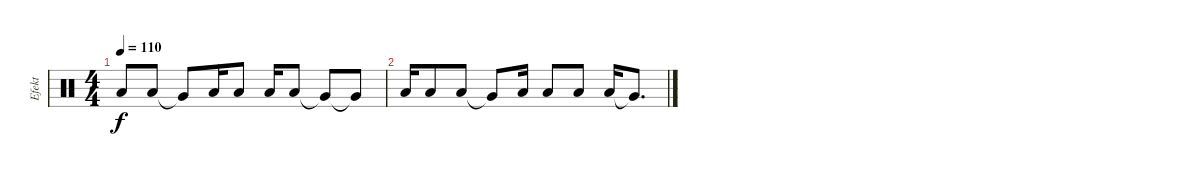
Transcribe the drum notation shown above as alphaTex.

\track ("Efekt" "Efekt") {instrument percussion}
\staff {score}
\articulation defaults
\ts (4 4)
\tempo 110
\clef neutral
\ks c "Low Floor Tom (hit)".8{dy f} "Low Floor Tom (hit)".8 "Very Low Tom (hit)"{t}.8 "Low Floor Tom (hit)".16 "Low Floor Tom (hit)".8 "Low Floor Tom (hit)".16 "Low Floor Tom (hit)".8 "Very Low Tom (hit)"{t}.8 "Very Low Tom (hit)"{t}.8
|
"Low Floor Tom (hit)".16 "Low Floor Tom (hit)".8 "Low Floor Tom (hit)".8 "Very Low Tom (hit)"{t}.8 "Low Floor Tom (hit)".16 "Low Floor Tom (hit)".8 "Low Floor Tom (hit)".8 "Low Floor Tom (hit)".16 "Very Low Tom (hit)"{t}.8{d}
